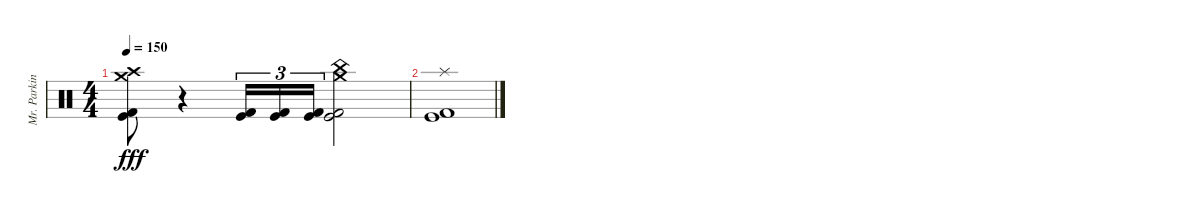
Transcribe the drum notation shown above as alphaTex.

\track ("Mr. Parkinson" "Mr. Parkin") {instrument percussion}
\staff {score}
\articulation defaults
\ts (4 4)
\tempo 150
\clef neutral
\ks c
("Crash high (hit)" "Crash medium (hit)" "Kick (hit)" "Kick (hit) 2").8{dy fff} r.4 ("Kick (hit)" "Kick (hit) 2").16{tu (3 2)} ("Kick (hit)" "Kick (hit) 2").16{tu (3 2)} ("Kick (hit)" "Kick (hit) 2").16{tu (3 2)} ("Crash medium (hit)" "China (hit)" "Kick (hit)" "Kick (hit) 2").2 |
("Splash (hit)" "Kick (hit)" "Kick (hit) 2").1
